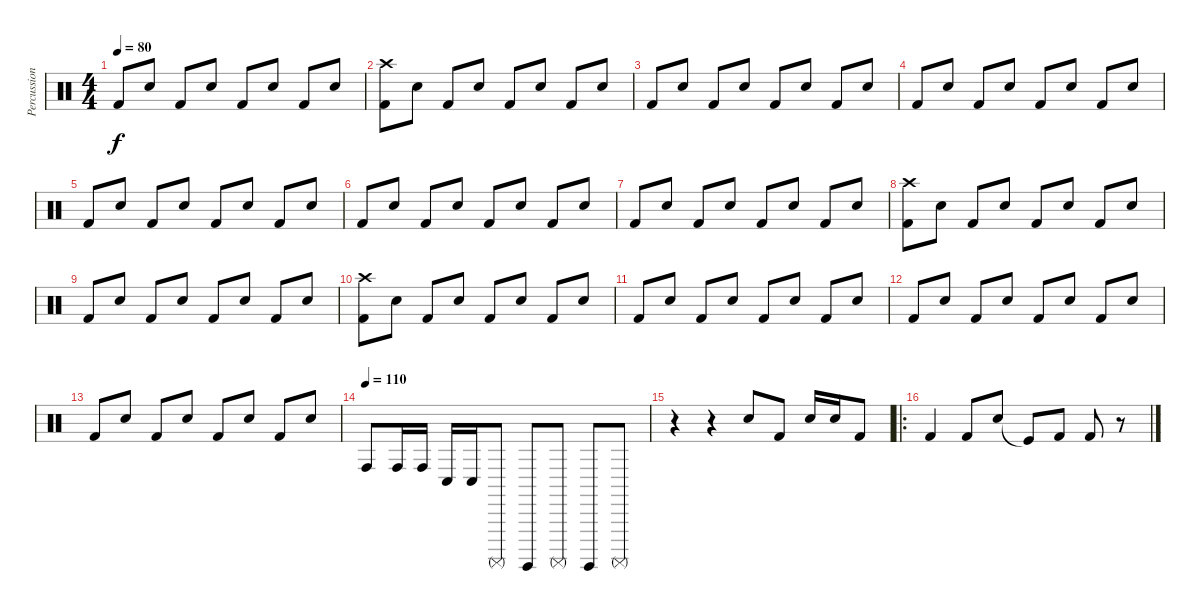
\track ("Percussion" "Percussion") {instrument percussion}
\staff {score}
\articulation defaults
\ts (4 4)
\tempo 80
\clef neutral
\ks c "Kick (hit) 2".8{dy f} "Electric Snare (hit)".8 "Kick (hit) 2".8 "Electric Snare (hit)".8 "Kick (hit) 2".8 "Electric Snare (hit)".8 "Kick (hit) 2".8 "Electric Snare (hit)".8
|
("Crash high (hit)" "Kick (hit) 2").8 "Electric Snare (hit)".8 "Kick (hit) 2".8 "Electric Snare (hit)".8 "Kick (hit) 2".8 "Electric Snare (hit)".8 "Kick (hit) 2".8 "Electric Snare (hit)".8 |
"Kick (hit) 2".8 "Electric Snare (hit)".8 "Kick (hit) 2".8 "Electric Snare (hit)".8 "Kick (hit) 2".8 "Electric Snare (hit)".8 "Kick (hit) 2".8 "Electric Snare (hit)".8 |
"Kick (hit) 2".8 "Electric Snare (hit)".8 "Kick (hit) 2".8 "Electric Snare (hit)".8 "Kick (hit) 2".8 "Electric Snare (hit)".8 "Kick (hit) 2".8 "Electric Snare (hit)".8 |
"Kick (hit) 2".8 "Electric Snare (hit)".8 "Kick (hit) 2".8 "Electric Snare (hit)".8 "Kick (hit) 2".8 "Electric Snare (hit)".8 "Kick (hit) 2".8 "Electric Snare (hit)".8 |
"Kick (hit) 2".8 "Electric Snare (hit)".8 "Kick (hit) 2".8 "Electric Snare (hit)".8 "Kick (hit) 2".8 "Electric Snare (hit)".8 "Kick (hit) 2".8 "Electric Snare (hit)".8 |
"Kick (hit) 2".8 "Electric Snare (hit)".8 "Kick (hit) 2".8 "Electric Snare (hit)".8 "Kick (hit) 2".8 "Electric Snare (hit)".8 "Kick (hit) 2".8 "Electric Snare (hit)".8 |
("Crash high (hit)" "Kick (hit) 2").8 "Electric Snare (hit)".8 "Kick (hit) 2".8 "Electric Snare (hit)".8 "Kick (hit) 2".8 "Electric Snare (hit)".8 "Kick (hit) 2".8 "Electric Snare (hit)".8 |
"Kick (hit) 2".8 "Electric Snare (hit)".8 "Kick (hit) 2".8 "Electric Snare (hit)".8 "Kick (hit) 2".8 "Electric Snare (hit)".8 "Kick (hit) 2".8 "Electric Snare (hit)".8 |
("Crash high (hit)" "Kick (hit) 2").8 "Electric Snare (hit)".8 "Kick (hit) 2".8 "Electric Snare (hit)".8 "Kick (hit) 2".8 "Electric Snare (hit)".8 "Kick (hit) 2".8 "Electric Snare (hit)".8 |
"Kick (hit) 2".8 "Electric Snare (hit)".8 "Kick (hit) 2".8 "Electric Snare (hit)".8 "Kick (hit) 2".8 "Electric Snare (hit)".8 "Kick (hit) 2".8 "Electric Snare (hit)".8 |
"Kick (hit) 2".8 "Electric Snare (hit)".8 "Kick (hit) 2".8 "Electric Snare (hit)".8 "Kick (hit) 2".8 "Electric Snare (hit)".8 "Kick (hit) 2".8 "Electric Snare (hit)".8 |
"Kick (hit) 2".8 "Electric Snare (hit)".8 "Kick (hit) 2".8 "Electric Snare (hit)".8 "Kick (hit) 2".8 "Electric Snare (hit)".8 "Kick (hit) 2".8 "Electric Snare (hit)".8 |
\tempo (110)
"Conga high (hit)".8 "Conga high (hit)".16 "Conga high (hit)".16 "Conga low (hit)".16 "Conga low (hit)".16 "Surdo (mute)".8 "Surdo (hit)".8 "Surdo (mute)".8 "Surdo (hit)".8 "Surdo (mute)".8 |
r.4 r.4 "Electric Snare (hit)".8 "Kick (hit) 2".8 "Electric Snare (hit)".16 "Electric Snare (hit)".16 "Kick (hit) 2".8 |
\ro "Kick (hit) 2".4 "Kick (hit) 2".8 "Electric Snare (hit)".8 "Kick (hit)"{t}.8 "Kick (hit) 2".8 "Kick (hit) 2".8
r.8
